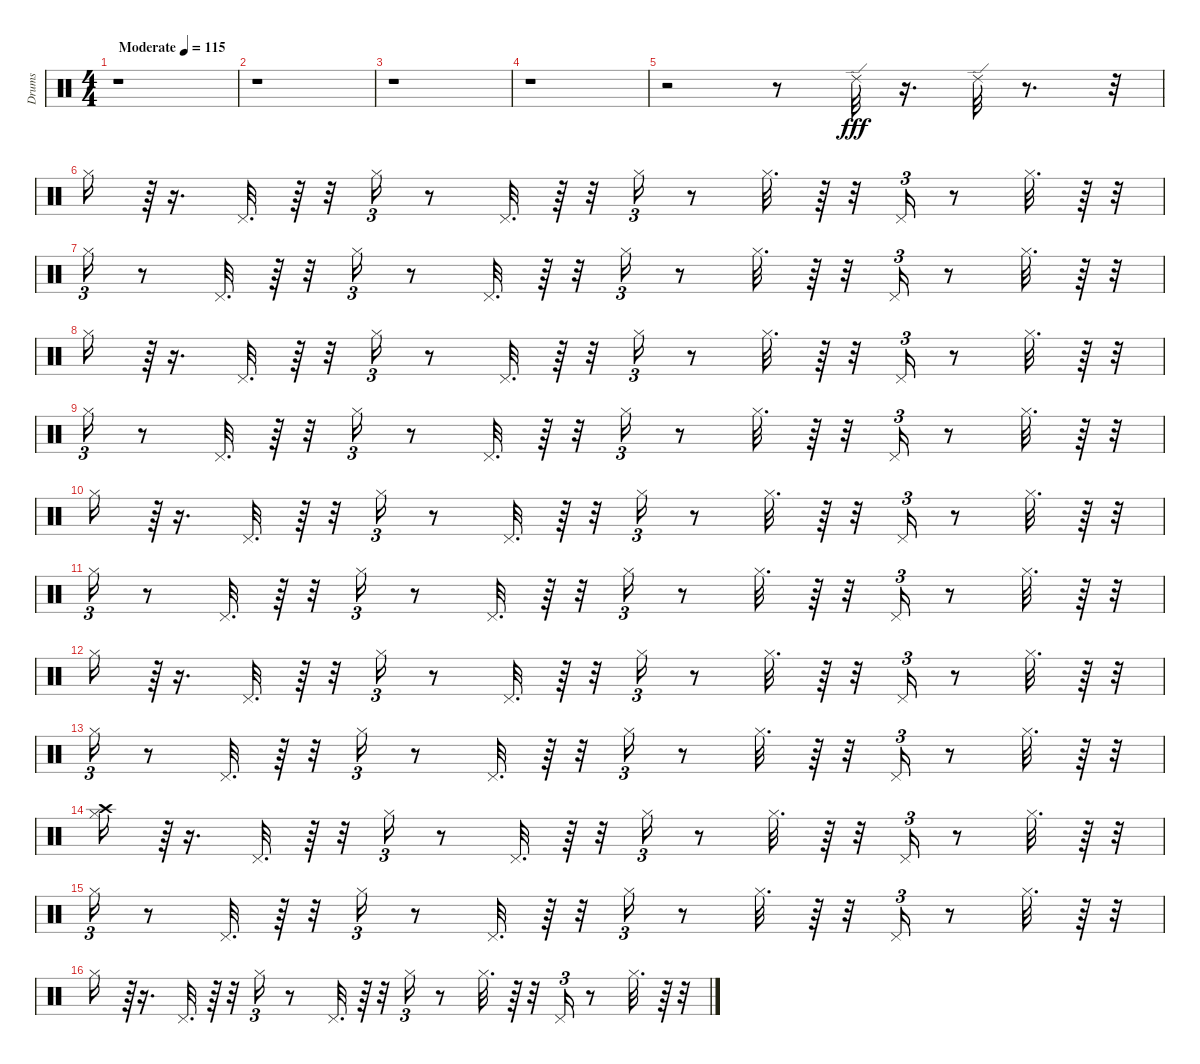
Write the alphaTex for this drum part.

\track ("Drums" "Drums") {instrument percussion}
\staff {score}
\articulation defaults
\ts (4 4)
\tempo (115 "Moderate")
\clef neutral
\ks c
r.1{dy fff} |
r.1 |
r.1 |
r.1 |
r.2 r.8 "Ride (edge) 2".32 r.16{d} "Ride (edge) 2".32 r.8{d} r.32 |
"Hi-Hat (closed)".16 r.64{tu (3 2)} r.16{d} "Pedal Hi-Hat (hit)".32{d} r.64 r.32 "Hi-Hat (closed)".16{tu (3 2)} r.8 "Pedal Hi-Hat (hit)".32{d} r.64 r.32 "Hi-Hat (closed)".16{tu (3 2)} r.8 "Hi-Hat (closed)".32{d} r.64 r.32 "Pedal Hi-Hat (hit)".16{tu (3 2)} r.8 "Hi-Hat (closed)".32{d} r.64 r.32 |
"Hi-Hat (closed)".16{tu (3 2)} r.8 "Pedal Hi-Hat (hit)".32{d} r.64 r.32 "Hi-Hat (closed)".16{tu (3 2)} r.8 "Pedal Hi-Hat (hit)".32{d} r.64 r.32 "Hi-Hat (closed)".16{tu (3 2)} r.8 "Hi-Hat (closed)".32{d} r.64 r.32 "Pedal Hi-Hat (hit)".16{tu (3 2)} r.8 "Hi-Hat (closed)".32{d} r.64 r.32 |
"Hi-Hat (closed)".16 r.64{tu (3 2)} r.16{d} "Pedal Hi-Hat (hit)".32{d} r.64 r.32 "Hi-Hat (closed)".16{tu (3 2)} r.8 "Pedal Hi-Hat (hit)".32{d} r.64 r.32 "Hi-Hat (closed)".16{tu (3 2)} r.8 "Hi-Hat (closed)".32{d} r.64 r.32 "Pedal Hi-Hat (hit)".16{tu (3 2)} r.8 "Hi-Hat (closed)".32{d} r.64 r.32 |
"Hi-Hat (closed)".16{tu (3 2)} r.8 "Pedal Hi-Hat (hit)".32{d} r.64 r.32 "Hi-Hat (closed)".16{tu (3 2)} r.8 "Pedal Hi-Hat (hit)".32{d} r.64 r.32 "Hi-Hat (closed)".16{tu (3 2)} r.8 "Hi-Hat (closed)".32{d} r.64 r.32 "Pedal Hi-Hat (hit)".16{tu (3 2)} r.8 "Hi-Hat (closed)".32{d} r.64 r.32 |
"Hi-Hat (closed)".16 r.64{tu (3 2)} r.16{d} "Pedal Hi-Hat (hit)".32{d} r.64 r.32 "Hi-Hat (closed)".16{tu (3 2)} r.8 "Pedal Hi-Hat (hit)".32{d} r.64 r.32 "Hi-Hat (closed)".16{tu (3 2)} r.8 "Hi-Hat (closed)".32{d} r.64 r.32 "Pedal Hi-Hat (hit)".16{tu (3 2)} r.8 "Hi-Hat (closed)".32{d} r.64 r.32 |
"Hi-Hat (closed)".16{tu (3 2)} r.8 "Pedal Hi-Hat (hit)".32{d} r.64 r.32 "Hi-Hat (closed)".16{tu (3 2)} r.8 "Pedal Hi-Hat (hit)".32{d} r.64 r.32 "Hi-Hat (closed)".16{tu (3 2)} r.8 "Hi-Hat (closed)".32{d} r.64 r.32 "Pedal Hi-Hat (hit)".16{tu (3 2)} r.8 "Hi-Hat (closed)".32{d} r.64 r.32 |
"Hi-Hat (closed)".16 r.64{tu (3 2)} r.16{d} "Pedal Hi-Hat (hit)".32{d} r.64 r.32 "Hi-Hat (closed)".16{tu (3 2)} r.8 "Pedal Hi-Hat (hit)".32{d} r.64 r.32 "Hi-Hat (closed)".16{tu (3 2)} r.8 "Hi-Hat (closed)".32{d} r.64 r.32 "Pedal Hi-Hat (hit)".16{tu (3 2)} r.8 "Hi-Hat (closed)".32{d} r.64 r.32 |
"Hi-Hat (closed)".16{tu (3 2)} r.8 "Pedal Hi-Hat (hit)".32{d} r.64 r.32 "Hi-Hat (closed)".16{tu (3 2)} r.8 "Pedal Hi-Hat (hit)".32{d} r.64 r.32 "Hi-Hat (closed)".16{tu (3 2)} r.8 "Hi-Hat (closed)".32{d} r.64 r.32 "Pedal Hi-Hat (hit)".16{tu (3 2)} r.8 "Hi-Hat (closed)".32{d} r.64 r.32 |
("Crash high (hit)" "Hi-Hat (closed)").16 r.64{tu (3 2)} r.16{d} "Pedal Hi-Hat (hit)".32{d} r.64 r.32 "Hi-Hat (closed)".16{tu (3 2)} r.8 "Pedal Hi-Hat (hit)".32{d} r.64 r.32 "Hi-Hat (closed)".16{tu (3 2)} r.8 "Hi-Hat (closed)".32{d} r.64 r.32 "Pedal Hi-Hat (hit)".16{tu (3 2)} r.8 "Hi-Hat (closed)".32{d} r.64 r.32 |
"Hi-Hat (closed)".16{tu (3 2)} r.8 "Pedal Hi-Hat (hit)".32{d} r.64 r.32 "Hi-Hat (closed)".16{tu (3 2)} r.8 "Pedal Hi-Hat (hit)".32{d} r.64 r.32 "Hi-Hat (closed)".16{tu (3 2)} r.8 "Hi-Hat (closed)".32{d} r.64 r.32 "Pedal Hi-Hat (hit)".16{tu (3 2)} r.8 "Hi-Hat (closed)".32{d} r.64 r.32 |
"Hi-Hat (closed)".16 r.64{tu (3 2)} r.16{d} "Pedal Hi-Hat (hit)".32{d} r.64 r.32 "Hi-Hat (closed)".16{tu (3 2)} r.8 "Pedal Hi-Hat (hit)".32{d} r.64 r.32 "Hi-Hat (closed)".16{tu (3 2)} r.8 "Hi-Hat (closed)".32{d} r.64 r.32 "Pedal Hi-Hat (hit)".16{tu (3 2)} r.8 "Hi-Hat (closed)".32{d} r.64 r.32
